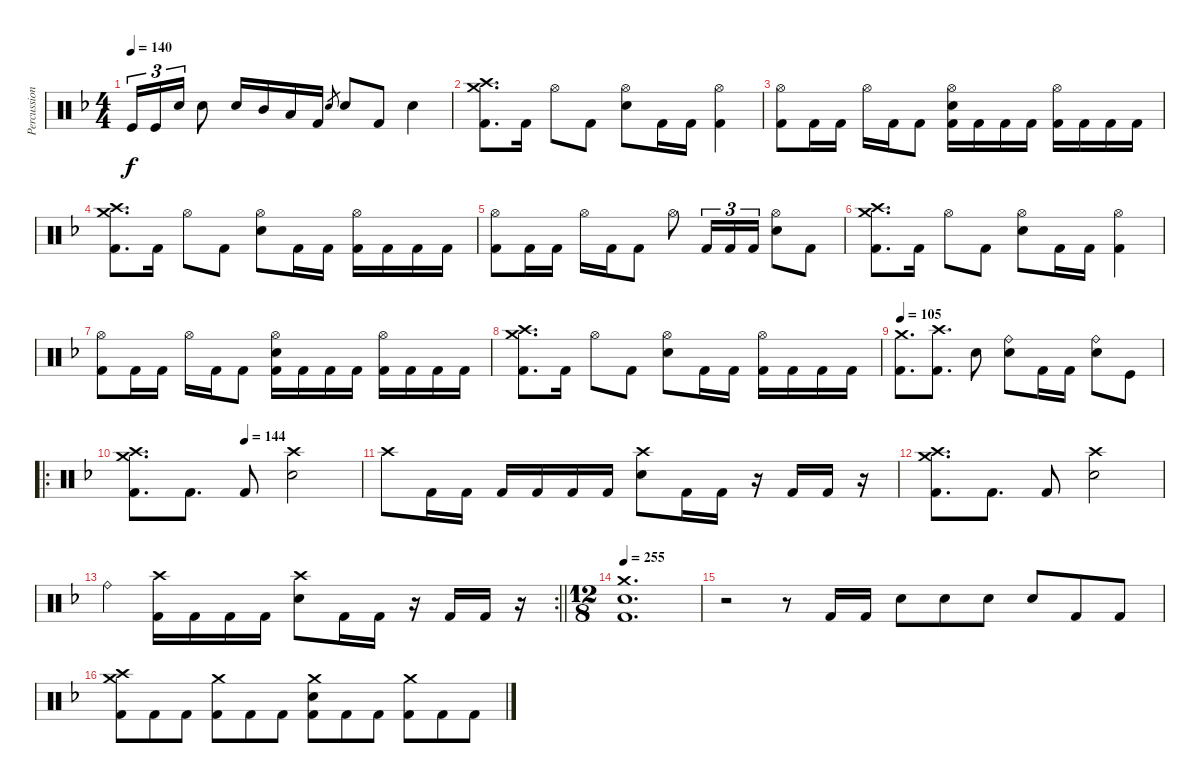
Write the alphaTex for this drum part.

\track ("Percussion" "Percussion") {instrument percussion}
\staff {score}
\articulation defaults
\ts (4 4)
\tempo 140
\clef neutral
\ks dminor "Kick (hit)".16{tu (3 2) dy f volume 16} "Kick (hit)".16{tu (3 2)} "Electric Snare (hit)".16{tu (3 2)} "Electric Snare (hit)".8 "Electric Snare (hit)".16 "Mid Tom (hit)".16 "Low Tom (hit)".16 "Kick (hit) 2".16 "Electric Snare (hit)".8{gr} "Electric Snare (hit)".8 "Kick (hit) 2".8 "Electric Snare (hit)".4
|
("Crash medium (hit)" "Crash high (hit)" "Kick (hit) 2").8{d} "Kick (hit) 2".16 "Hi-Hat (open)".8 "Kick (hit) 2".8 ("Hi-Hat (open)" "Electric Snare (hit)").8 "Kick (hit) 2".16 "Kick (hit) 2".16 ("Hi-Hat (open)" "Kick (hit) 2").4 |
("Hi-Hat (open)" "Kick (hit) 2").8 "Kick (hit) 2".16 "Kick (hit) 2".16 "Hi-Hat (open)".16 "Kick (hit) 2".16 "Kick (hit) 2".8 ("Hi-Hat (open)" "Electric Snare (hit)" "Kick (hit) 2").16 "Kick (hit) 2".16 "Kick (hit) 2".16 "Kick (hit) 2".16 ("Hi-Hat (open)" "Kick (hit) 2").16 "Kick (hit) 2".16 "Kick (hit) 2".16 "Kick (hit) 2".16 |
("Crash medium (hit)" "Crash high (hit)" "Kick (hit) 2").8{d} "Kick (hit) 2".16 "Hi-Hat (open)".8 "Kick (hit) 2".8 ("Hi-Hat (open)" "Electric Snare (hit)").8 "Kick (hit) 2".16 "Kick (hit) 2".16 ("Hi-Hat (open)" "Kick (hit) 2").16 "Kick (hit) 2".16 "Kick (hit) 2".16 "Kick (hit) 2".16 |
("Hi-Hat (open)" "Kick (hit) 2").8 "Kick (hit) 2".16 "Kick (hit) 2".16 "Hi-Hat (open)".16 "Kick (hit) 2".16 "Kick (hit) 2".8 "Hi-Hat (open)".8 "Kick (hit) 2".16{tu (3 2)} "Kick (hit) 2".16{tu (3 2)} "Kick (hit) 2".16{tu (3 2)} ("Hi-Hat (open)" "Electric Snare (hit)").8 "Kick (hit) 2".8 |
("Crash medium (hit)" "Crash high (hit)" "Kick (hit) 2").8{d} "Kick (hit) 2".16 "Hi-Hat (open)".8 "Kick (hit) 2".8 ("Hi-Hat (open)" "Electric Snare (hit)").8 "Kick (hit) 2".16 "Kick (hit) 2".16 ("Hi-Hat (open)" "Kick (hit) 2").4 |
("Hi-Hat (open)" "Kick (hit) 2").8 "Kick (hit) 2".16 "Kick (hit) 2".16 "Hi-Hat (open)".16 "Kick (hit) 2".16 "Kick (hit) 2".8 ("Hi-Hat (open)" "Electric Snare (hit)" "Kick (hit) 2").16 "Kick (hit) 2".16 "Kick (hit) 2".16 "Kick (hit) 2".16 ("Hi-Hat (open)" "Kick (hit) 2").16 "Kick (hit) 2".16 "Kick (hit) 2".16 "Kick (hit) 2".16 |
("Crash medium (hit)" "Crash high (hit)" "Kick (hit) 2").8{d} "Kick (hit) 2".16 "Hi-Hat (open)".8 "Kick (hit) 2".8 ("Hi-Hat (open)" "Electric Snare (hit)").8 "Kick (hit) 2".16 "Kick (hit) 2".16 ("Hi-Hat (open)" "Kick (hit) 2").16 "Kick (hit) 2".16 "Kick (hit) 2".16 "Kick (hit) 2".16 |
\tempo 105
("Crash medium (hit)" "Kick (hit) 2").8{d volume 14} ("Crash high (hit)" "Kick (hit) 2").8{d} "Electric Snare (hit)".8 ("Ride (bell)" "Electric Snare (hit)").8 "Kick (hit) 2".16 "Kick (hit) 2".16 ("Ride (bell)" "Electric Snare (hit)").8 "Kick (hit)".8 |
\ro
\tempo (144 0.5)
("Crash medium (hit)" "Crash high (hit)" "Kick (hit) 2").8{d} "Kick (hit) 2".8{d} "Kick (hit) 2".8 ("Crash high (hit)" "Electric Snare (hit)").2 |
"Crash high (hit)".8 "Kick (hit) 2".16 "Kick (hit) 2".16 "Kick (hit) 2".16 "Kick (hit) 2".16 "Kick (hit) 2".16 "Kick (hit) 2".16 ("Crash high (hit)" "Electric Snare (hit)").8 "Kick (hit) 2".16 "Kick (hit) 2".16 r.16 "Kick (hit) 2".16 "Kick (hit) 2".16 r.16 |
("Crash medium (hit)" "Crash high (hit)" "Kick (hit) 2").8{d} "Kick (hit) 2".8{d} "Kick (hit) 2".8 ("Crash high (hit)" "Electric Snare (hit)").2 |
\rc 2
\barLineRight lightlight "Ride (bell)".4
("Crash high (hit)" "Kick (hit) 2").16 "Kick (hit) 2".16 "Kick (hit) 2".16 "Kick (hit) 2".16 ("Crash high (hit)" "Electric Snare (hit)").8 "Kick (hit) 2".16 "Kick (hit) 2".16 r.16 "Kick (hit) 2".16 "Kick (hit) 2".16 r.16 |
\ts (12 8)
\section ("" "")
\tempo 255
("Crash medium (hit)" "Electric Snare (hit)" "Kick (hit) 2").1{d} |
r.2 r.8 "Kick (hit) 2".16 "Kick (hit) 2".16 "Electric Snare (hit)".8 "Electric Snare (hit)".8 "Electric Snare (hit)".8 "Electric Snare (hit)".8 "Kick (hit) 2".8 "Kick (hit) 2".8 |
("Crash medium (hit)" "Crash high (hit)" "Kick (hit) 2").8 "Kick (hit) 2".8 "Kick (hit) 2".8 ("Crash medium (hit)" "Kick (hit) 2").8 "Kick (hit) 2".8 "Kick (hit) 2".8 ("Crash medium (hit)" "Electric Snare (hit)" "Kick (hit) 2").8 "Kick (hit) 2".8 "Kick (hit) 2".8 ("Crash medium (hit)" "Kick (hit) 2").8 "Kick (hit) 2".8 "Kick (hit) 2".8
